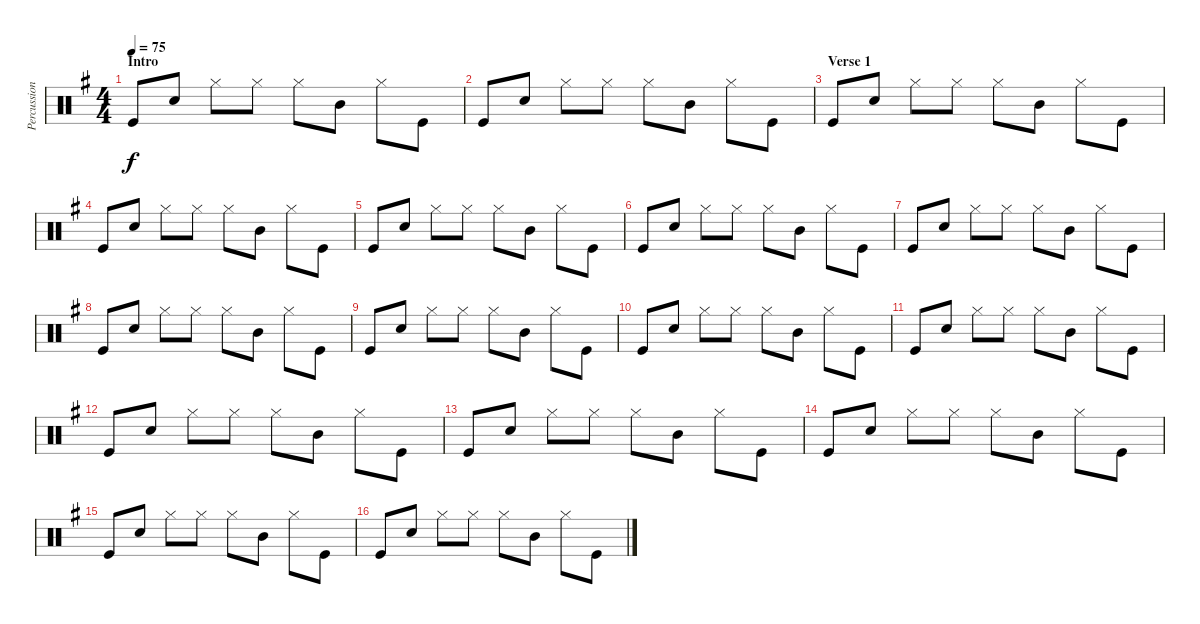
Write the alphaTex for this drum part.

\track ("Percussion" "Percussion") {instrument percussion}
\staff {score}
\articulation defaults
\ts (4 4)
\section ("" "Intro")
\tempo 75
\clef neutral
\ks g "Kick (hit)".8{dy f} "Snare (hit) 2".8 "Hi-Hat (closed)".8 "Hi-Hat (closed)".8 "Hi-Hat (closed)".8 "Mid Tom (hit)".8 "Hi-Hat (closed)".8 "Kick (hit)".8
|
"Kick (hit)".8 "Snare (hit) 2".8 "Hi-Hat (closed)".8 "Hi-Hat (closed)".8 "Hi-Hat (closed)".8 "Mid Tom (hit)".8 "Hi-Hat (closed)".8 "Kick (hit)".8 |
\section ("" "Verse 1")
"Kick (hit)".8 "Snare (hit) 2".8 "Hi-Hat (closed)".8 "Hi-Hat (closed)".8 "Hi-Hat (closed)".8 "Mid Tom (hit)".8 "Hi-Hat (closed)".8 "Kick (hit)".8 |
"Kick (hit)".8 "Snare (hit) 2".8 "Hi-Hat (closed)".8 "Hi-Hat (closed)".8 "Hi-Hat (closed)".8 "Mid Tom (hit)".8 "Hi-Hat (closed)".8 "Kick (hit)".8 |
"Kick (hit)".8 "Snare (hit) 2".8 "Hi-Hat (closed)".8 "Hi-Hat (closed)".8 "Hi-Hat (closed)".8 "Mid Tom (hit)".8 "Hi-Hat (closed)".8 "Kick (hit)".8 |
"Kick (hit)".8 "Snare (hit) 2".8 "Hi-Hat (closed)".8 "Hi-Hat (closed)".8 "Hi-Hat (closed)".8 "Mid Tom (hit)".8 "Hi-Hat (closed)".8 "Kick (hit)".8 |
"Kick (hit)".8 "Snare (hit) 2".8 "Hi-Hat (closed)".8 "Hi-Hat (closed)".8 "Hi-Hat (closed)".8 "Mid Tom (hit)".8 "Hi-Hat (closed)".8 "Kick (hit)".8 |
"Kick (hit)".8 "Snare (hit) 2".8 "Hi-Hat (closed)".8 "Hi-Hat (closed)".8 "Hi-Hat (closed)".8 "Mid Tom (hit)".8 "Hi-Hat (closed)".8 "Kick (hit)".8 |
"Kick (hit)".8 "Snare (hit) 2".8 "Hi-Hat (closed)".8 "Hi-Hat (closed)".8 "Hi-Hat (closed)".8 "Mid Tom (hit)".8 "Hi-Hat (closed)".8 "Kick (hit)".8 |
"Kick (hit)".8 "Snare (hit) 2".8 "Hi-Hat (closed)".8 "Hi-Hat (closed)".8 "Hi-Hat (closed)".8 "Mid Tom (hit)".8 "Hi-Hat (closed)".8 "Kick (hit)".8 |
"Kick (hit)".8 "Snare (hit) 2".8 "Hi-Hat (closed)".8 "Hi-Hat (closed)".8 "Hi-Hat (closed)".8 "Mid Tom (hit)".8 "Hi-Hat (closed)".8 "Kick (hit)".8 |
"Kick (hit)".8 "Snare (hit) 2".8 "Hi-Hat (closed)".8 "Hi-Hat (closed)".8 "Hi-Hat (closed)".8 "Mid Tom (hit)".8 "Hi-Hat (closed)".8 "Kick (hit)".8 |
"Kick (hit)".8 "Snare (hit) 2".8 "Hi-Hat (closed)".8 "Hi-Hat (closed)".8 "Hi-Hat (closed)".8 "Mid Tom (hit)".8 "Hi-Hat (closed)".8 "Kick (hit)".8 |
"Kick (hit)".8 "Snare (hit) 2".8 "Hi-Hat (closed)".8 "Hi-Hat (closed)".8 "Hi-Hat (closed)".8 "Mid Tom (hit)".8 "Hi-Hat (closed)".8 "Kick (hit)".8 |
"Kick (hit)".8 "Snare (hit) 2".8 "Hi-Hat (closed)".8 "Hi-Hat (closed)".8 "Hi-Hat (closed)".8 "Mid Tom (hit)".8 "Hi-Hat (closed)".8 "Kick (hit)".8 |
"Kick (hit)".8 "Snare (hit) 2".8 "Hi-Hat (closed)".8 "Hi-Hat (closed)".8 "Hi-Hat (closed)".8 "Mid Tom (hit)".8 "Hi-Hat (closed)".8 "Kick (hit)".8
